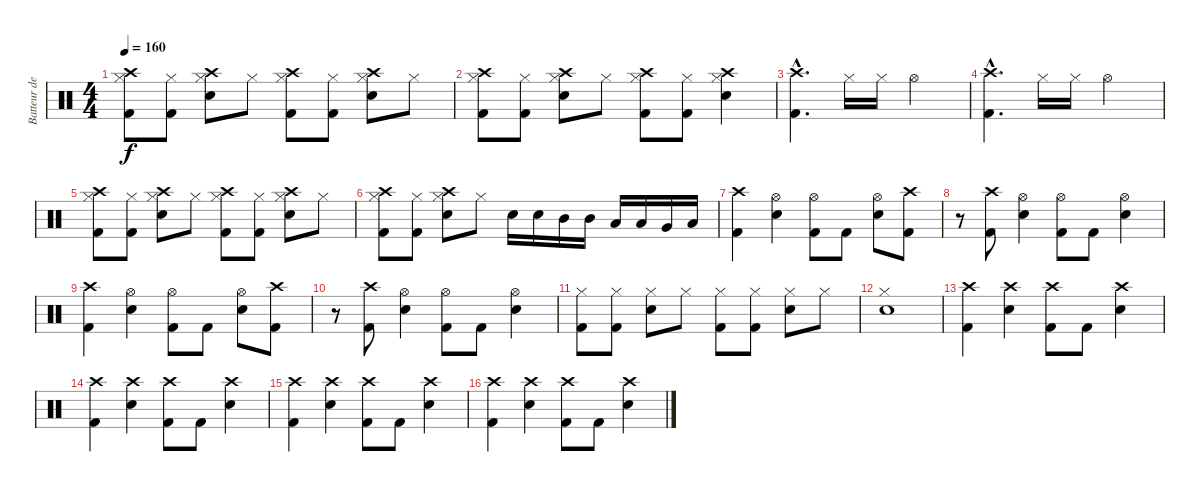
\track ("Batteur de G.C" "Batteur de") {instrument percussion}
\staff {score}
\articulation defaults
\ts (4 4)
\tempo 160
\clef neutral
\ks c
("Crash high (hit)" "Hi-Hat (closed)" "Kick (hit) 2").8{dy f} ("Hi-Hat (closed)" "Kick (hit) 2").8 ("Crash high (hit)" "Hi-Hat (closed)" "Electric Snare (hit)").8 "Hi-Hat (closed)".8 ("Crash high (hit)" "Hi-Hat (closed)" "Kick (hit) 2").8 ("Hi-Hat (closed)" "Kick (hit) 2").8 ("Crash high (hit)" "Hi-Hat (closed)" "Electric Snare (hit)").8 "Hi-Hat (closed)".8 |
("Crash high (hit)" "Hi-Hat (closed)" "Kick (hit) 2").8 ("Hi-Hat (closed)" "Kick (hit) 2").8 ("Crash high (hit)" "Hi-Hat (closed)" "Electric Snare (hit)").8 "Hi-Hat (closed)".8 ("Crash high (hit)" "Hi-Hat (closed)" "Kick (hit) 2").8 ("Hi-Hat (closed)" "Kick (hit) 2").8 ("Crash high (hit)" "Hi-Hat (closed)" "Electric Snare (hit)").4 |
("Crash high (hit)"{hac} "Kick (hit) 2"{hac}).4{d} "Hi-Hat (closed)".16 "Hi-Hat (closed)".16 "Hi-Hat (open)".2 |
("Crash high (hit)"{hac} "Kick (hit) 2"{hac}).4{d} "Hi-Hat (closed)".16 "Hi-Hat (closed)".16 "Hi-Hat (open)".2 |
("Crash high (hit)" "Hi-Hat (closed)" "Kick (hit) 2").8 ("Hi-Hat (closed)" "Kick (hit) 2").8 ("Crash high (hit)" "Hi-Hat (closed)" "Electric Snare (hit)").8 "Hi-Hat (closed)".8 ("Crash high (hit)" "Hi-Hat (closed)" "Kick (hit) 2").8 ("Hi-Hat (closed)" "Kick (hit) 2").8 ("Crash high (hit)" "Hi-Hat (closed)" "Electric Snare (hit)").8 "Hi-Hat (closed)".8 |
("Crash high (hit)" "Hi-Hat (closed)" "Kick (hit) 2").8 ("Hi-Hat (closed)" "Kick (hit) 2").8 ("Crash high (hit)" "Hi-Hat (closed)" "Electric Snare (hit)").8 "Hi-Hat (closed)".8 "Electric Snare (hit)".16 "Electric Snare (hit)".16 "Mid Tom (hit)".16 "Mid Tom (hit)".16 "Low Tom (hit)".16 "Low Tom (hit)".16 "Very Low Tom (hit)".16 "Low Floor Tom (hit)".16 |
("Crash high (hit)" "Kick (hit) 2").4 ("Hi-Hat (open)" "Electric Snare (hit)").4 ("Hi-Hat (open)" "Kick (hit) 2").8 "Kick (hit) 2".8 ("Hi-Hat (open)" "Electric Snare (hit)").8 ("Crash high (hit)" "Kick (hit) 2").8 |
r.8 ("Crash high (hit)" "Kick (hit) 2").8 ("Hi-Hat (open)" "Electric Snare (hit)").4 ("Hi-Hat (open)" "Kick (hit) 2").8 "Kick (hit) 2".8 ("Hi-Hat (open)" "Electric Snare (hit)").4 |
("Crash high (hit)" "Kick (hit) 2").4 ("Hi-Hat (open)" "Electric Snare (hit)").4 ("Hi-Hat (open)" "Kick (hit) 2").8 "Kick (hit) 2".8 ("Hi-Hat (open)" "Electric Snare (hit)").8 ("Crash high (hit)" "Kick (hit) 2").8 |
r.8 ("Crash high (hit)" "Kick (hit) 2").8 ("Hi-Hat (open)" "Electric Snare (hit)").4 ("Hi-Hat (open)" "Kick (hit) 2").8 "Kick (hit) 2".8 ("Hi-Hat (open)" "Electric Snare (hit)").4 |
("Hi-Hat (closed)" "Kick (hit) 2").8 ("Hi-Hat (closed)" "Kick (hit) 2").8 ("Hi-Hat (closed)" "Electric Snare (hit)").8 "Hi-Hat (closed)".8 ("Hi-Hat (closed)" "Kick (hit) 2").8 ("Hi-Hat (closed)" "Kick (hit) 2").8 ("Hi-Hat (closed)" "Electric Snare (hit)").8 "Hi-Hat (closed)".8 |
("Hi-Hat (closed)" "Electric Snare (hit)").1 |
("Crash high (hit)" "Kick (hit) 2").4 ("Crash high (hit)" "Electric Snare (hit)").4 ("Crash high (hit)" "Kick (hit) 2").8 "Kick (hit) 2".8 ("Crash high (hit)" "Electric Snare (hit)").4 |
("Crash high (hit)" "Kick (hit) 2").4 ("Crash high (hit)" "Electric Snare (hit)").4 ("Crash high (hit)" "Kick (hit) 2").8 "Kick (hit) 2".8 ("Crash high (hit)" "Electric Snare (hit)").4 |
("Crash high (hit)" "Kick (hit) 2").4 ("Crash high (hit)" "Electric Snare (hit)").4 ("Crash high (hit)" "Kick (hit) 2").8 "Kick (hit) 2".8 ("Crash high (hit)" "Electric Snare (hit)").4 |
("Crash high (hit)" "Kick (hit) 2").4 ("Crash high (hit)" "Electric Snare (hit)").4 ("Crash high (hit)" "Kick (hit) 2").8 "Kick (hit) 2".8 ("Crash high (hit)" "Electric Snare (hit)").4
